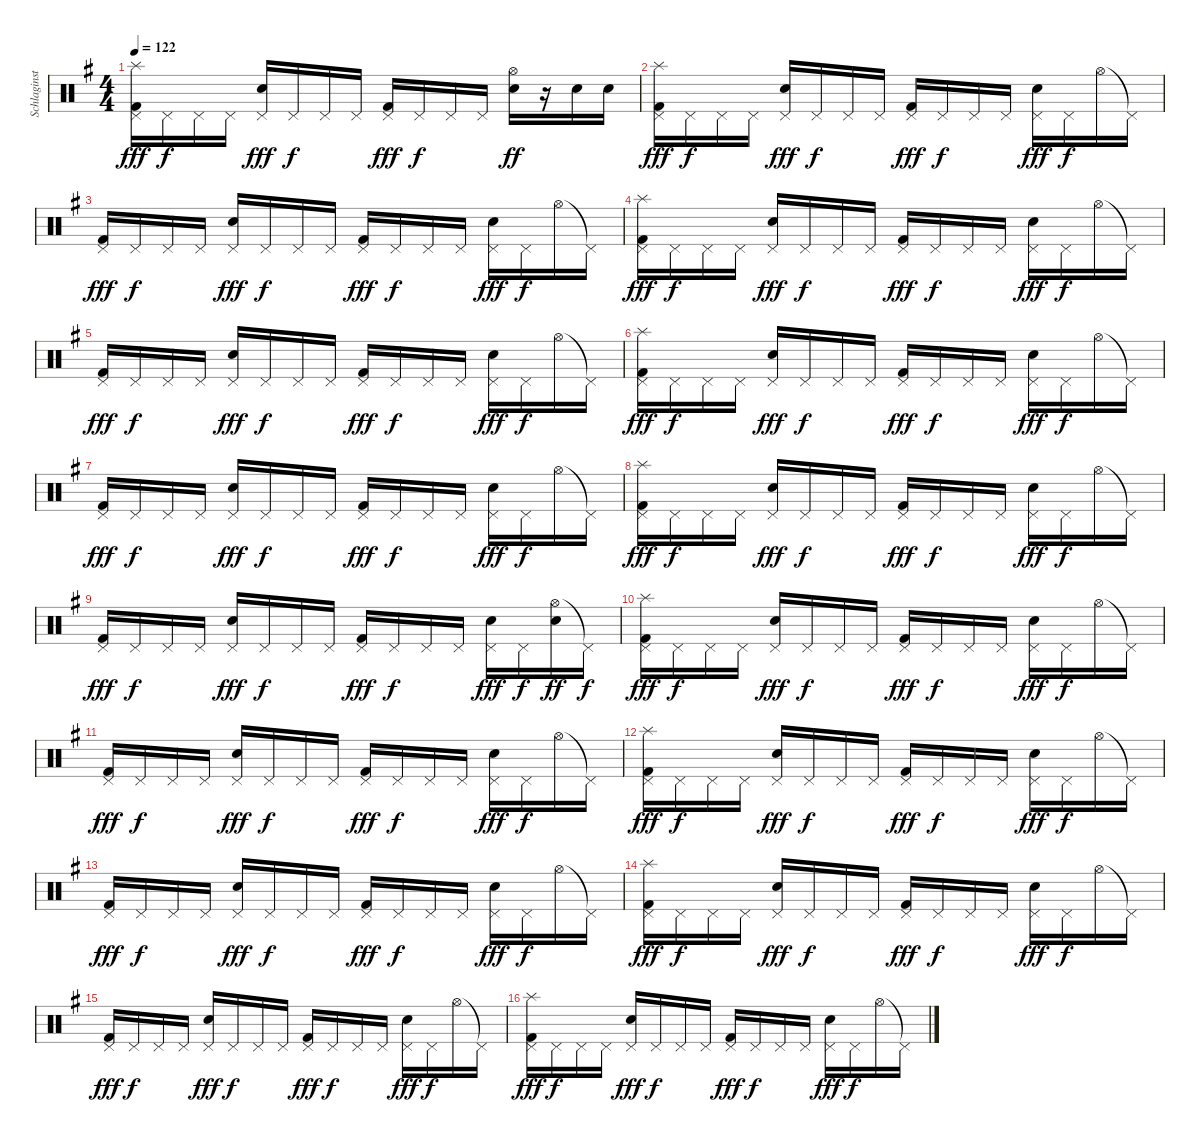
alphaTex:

\track ("Schlaginstrumente - Auswahl" "Schlaginst") {instrument percussion}
\staff {score}
\articulation defaults
\ts (4 4)
\tempo 122
\clef neutral
\ks g
("Splash (hit)" "Pedal Hi-Hat (hit)" "Kick (hit) 2").16{dy fff} "Pedal Hi-Hat (hit)".16{dy f} "Pedal Hi-Hat (hit)".16 "Pedal Hi-Hat (hit)".16 ("Pedal Hi-Hat (hit)" "Electric Snare (hit)").16{dy fff} "Pedal Hi-Hat (hit)".16{dy f} "Pedal Hi-Hat (hit)".16 "Pedal Hi-Hat (hit)".16 ("Pedal Hi-Hat (hit)" "Kick (hit) 2").16{dy fff} "Pedal Hi-Hat (hit)".16{dy f} "Pedal Hi-Hat (hit)".16 "Pedal Hi-Hat (hit)".16 ("Hi-Hat (open)" "Electric Snare (hit)").16{dy ff} r.16 "Electric Snare (hit)".16 "Electric Snare (hit)".16 |
("Splash (hit)" "Pedal Hi-Hat (hit)" "Kick (hit) 2").16{dy fff} "Pedal Hi-Hat (hit)".16{dy f} "Pedal Hi-Hat (hit)".16 "Pedal Hi-Hat (hit)".16 ("Pedal Hi-Hat (hit)" "Electric Snare (hit)").16{dy fff} "Pedal Hi-Hat (hit)".16{dy f} "Pedal Hi-Hat (hit)".16 "Pedal Hi-Hat (hit)".16 ("Pedal Hi-Hat (hit)" "Kick (hit) 2").16{dy fff} "Pedal Hi-Hat (hit)".16{dy f} "Pedal Hi-Hat (hit)".16 "Pedal Hi-Hat (hit)".16 ("Pedal Hi-Hat (hit)" "Electric Snare (hit)").16{dy fff} "Pedal Hi-Hat (hit)".16{dy f} "Hi-Hat (open)".16 "Pedal Hi-Hat (hit)"{t}.16 |
("Pedal Hi-Hat (hit)" "Kick (hit) 2").16{dy fff} "Pedal Hi-Hat (hit)".16{dy f} "Pedal Hi-Hat (hit)".16 "Pedal Hi-Hat (hit)".16 ("Pedal Hi-Hat (hit)" "Electric Snare (hit)").16{dy fff} "Pedal Hi-Hat (hit)".16{dy f} "Pedal Hi-Hat (hit)".16 "Pedal Hi-Hat (hit)".16 ("Pedal Hi-Hat (hit)" "Kick (hit) 2").16{dy fff} "Pedal Hi-Hat (hit)".16{dy f} "Pedal Hi-Hat (hit)".16 "Pedal Hi-Hat (hit)".16 ("Pedal Hi-Hat (hit)" "Electric Snare (hit)").16{dy fff} "Pedal Hi-Hat (hit)".16{dy f} "Hi-Hat (open)".16 "Pedal Hi-Hat (hit)"{t}.16 |
("Splash (hit)" "Pedal Hi-Hat (hit)" "Kick (hit) 2").16{dy fff} "Pedal Hi-Hat (hit)".16{dy f} "Pedal Hi-Hat (hit)".16 "Pedal Hi-Hat (hit)".16 ("Pedal Hi-Hat (hit)" "Electric Snare (hit)").16{dy fff} "Pedal Hi-Hat (hit)".16{dy f} "Pedal Hi-Hat (hit)".16 "Pedal Hi-Hat (hit)".16 ("Pedal Hi-Hat (hit)" "Kick (hit) 2").16{dy fff} "Pedal Hi-Hat (hit)".16{dy f} "Pedal Hi-Hat (hit)".16 "Pedal Hi-Hat (hit)".16 ("Pedal Hi-Hat (hit)" "Electric Snare (hit)").16{dy fff} "Pedal Hi-Hat (hit)".16{dy f} "Hi-Hat (open)".16 "Pedal Hi-Hat (hit)"{t}.16 |
("Pedal Hi-Hat (hit)" "Kick (hit) 2").16{dy fff} "Pedal Hi-Hat (hit)".16{dy f} "Pedal Hi-Hat (hit)".16 "Pedal Hi-Hat (hit)".16 ("Pedal Hi-Hat (hit)" "Electric Snare (hit)").16{dy fff} "Pedal Hi-Hat (hit)".16{dy f} "Pedal Hi-Hat (hit)".16 "Pedal Hi-Hat (hit)".16 ("Pedal Hi-Hat (hit)" "Kick (hit) 2").16{dy fff} "Pedal Hi-Hat (hit)".16{dy f} "Pedal Hi-Hat (hit)".16 "Pedal Hi-Hat (hit)".16 ("Pedal Hi-Hat (hit)" "Electric Snare (hit)").16{dy fff} "Pedal Hi-Hat (hit)".16{dy f} "Hi-Hat (open)".16 "Pedal Hi-Hat (hit)"{t}.16 |
("Splash (hit)" "Pedal Hi-Hat (hit)" "Kick (hit) 2").16{dy fff} "Pedal Hi-Hat (hit)".16{dy f} "Pedal Hi-Hat (hit)".16 "Pedal Hi-Hat (hit)".16 ("Pedal Hi-Hat (hit)" "Electric Snare (hit)").16{dy fff} "Pedal Hi-Hat (hit)".16{dy f} "Pedal Hi-Hat (hit)".16 "Pedal Hi-Hat (hit)".16 ("Pedal Hi-Hat (hit)" "Kick (hit) 2").16{dy fff} "Pedal Hi-Hat (hit)".16{dy f} "Pedal Hi-Hat (hit)".16 "Pedal Hi-Hat (hit)".16 ("Pedal Hi-Hat (hit)" "Electric Snare (hit)").16{dy fff} "Pedal Hi-Hat (hit)".16{dy f} "Hi-Hat (open)".16 "Pedal Hi-Hat (hit)"{t}.16 |
("Pedal Hi-Hat (hit)" "Kick (hit) 2").16{dy fff} "Pedal Hi-Hat (hit)".16{dy f} "Pedal Hi-Hat (hit)".16 "Pedal Hi-Hat (hit)".16 ("Pedal Hi-Hat (hit)" "Electric Snare (hit)").16{dy fff} "Pedal Hi-Hat (hit)".16{dy f} "Pedal Hi-Hat (hit)".16 "Pedal Hi-Hat (hit)".16 ("Pedal Hi-Hat (hit)" "Kick (hit) 2").16{dy fff} "Pedal Hi-Hat (hit)".16{dy f} "Pedal Hi-Hat (hit)".16 "Pedal Hi-Hat (hit)".16 ("Pedal Hi-Hat (hit)" "Electric Snare (hit)").16{dy fff} "Pedal Hi-Hat (hit)".16{dy f} "Hi-Hat (open)".16 "Pedal Hi-Hat (hit)"{t}.16 |
("Splash (hit)" "Pedal Hi-Hat (hit)" "Kick (hit) 2").16{dy fff} "Pedal Hi-Hat (hit)".16{dy f} "Pedal Hi-Hat (hit)".16 "Pedal Hi-Hat (hit)".16 ("Pedal Hi-Hat (hit)" "Electric Snare (hit)").16{dy fff} "Pedal Hi-Hat (hit)".16{dy f} "Pedal Hi-Hat (hit)".16 "Pedal Hi-Hat (hit)".16 ("Pedal Hi-Hat (hit)" "Kick (hit) 2").16{dy fff} "Pedal Hi-Hat (hit)".16{dy f} "Pedal Hi-Hat (hit)".16 "Pedal Hi-Hat (hit)".16 ("Pedal Hi-Hat (hit)" "Electric Snare (hit)").16{dy fff} "Pedal Hi-Hat (hit)".16{dy f} "Hi-Hat (open)".16 "Pedal Hi-Hat (hit)"{t}.16 |
("Pedal Hi-Hat (hit)" "Kick (hit) 2").16{dy fff} "Pedal Hi-Hat (hit)".16{dy f} "Pedal Hi-Hat (hit)".16 "Pedal Hi-Hat (hit)".16 ("Pedal Hi-Hat (hit)" "Electric Snare (hit)").16{dy fff} "Pedal Hi-Hat (hit)".16{dy f} "Pedal Hi-Hat (hit)".16 "Pedal Hi-Hat (hit)".16 ("Pedal Hi-Hat (hit)" "Kick (hit) 2").16{dy fff} "Pedal Hi-Hat (hit)".16{dy f} "Pedal Hi-Hat (hit)".16 "Pedal Hi-Hat (hit)".16 ("Pedal Hi-Hat (hit)" "Electric Snare (hit)").16{dy fff} "Pedal Hi-Hat (hit)".16{dy f} ("Hi-Hat (open)" "Electric Snare (hit)").16{dy ff} "Pedal Hi-Hat (hit)"{t}.16{dy f} |
("Splash (hit)" "Pedal Hi-Hat (hit)" "Kick (hit) 2").16{dy fff} "Pedal Hi-Hat (hit)".16{dy f} "Pedal Hi-Hat (hit)".16 "Pedal Hi-Hat (hit)".16 ("Pedal Hi-Hat (hit)" "Electric Snare (hit)").16{dy fff} "Pedal Hi-Hat (hit)".16{dy f} "Pedal Hi-Hat (hit)".16 "Pedal Hi-Hat (hit)".16 ("Pedal Hi-Hat (hit)" "Kick (hit) 2").16{dy fff} "Pedal Hi-Hat (hit)".16{dy f} "Pedal Hi-Hat (hit)".16 "Pedal Hi-Hat (hit)".16 ("Pedal Hi-Hat (hit)" "Electric Snare (hit)").16{dy fff} "Pedal Hi-Hat (hit)".16{dy f} "Hi-Hat (open)".16 "Pedal Hi-Hat (hit)"{t}.16 |
("Pedal Hi-Hat (hit)" "Kick (hit) 2").16{dy fff} "Pedal Hi-Hat (hit)".16{dy f} "Pedal Hi-Hat (hit)".16 "Pedal Hi-Hat (hit)".16 ("Pedal Hi-Hat (hit)" "Electric Snare (hit)").16{dy fff} "Pedal Hi-Hat (hit)".16{dy f} "Pedal Hi-Hat (hit)".16 "Pedal Hi-Hat (hit)".16 ("Pedal Hi-Hat (hit)" "Kick (hit) 2").16{dy fff} "Pedal Hi-Hat (hit)".16{dy f} "Pedal Hi-Hat (hit)".16 "Pedal Hi-Hat (hit)".16 ("Pedal Hi-Hat (hit)" "Electric Snare (hit)").16{dy fff} "Pedal Hi-Hat (hit)".16{dy f} "Hi-Hat (open)".16 "Pedal Hi-Hat (hit)"{t}.16 |
("Splash (hit)" "Pedal Hi-Hat (hit)" "Kick (hit) 2").16{dy fff} "Pedal Hi-Hat (hit)".16{dy f} "Pedal Hi-Hat (hit)".16 "Pedal Hi-Hat (hit)".16 ("Pedal Hi-Hat (hit)" "Electric Snare (hit)").16{dy fff} "Pedal Hi-Hat (hit)".16{dy f} "Pedal Hi-Hat (hit)".16 "Pedal Hi-Hat (hit)".16 ("Pedal Hi-Hat (hit)" "Kick (hit) 2").16{dy fff} "Pedal Hi-Hat (hit)".16{dy f} "Pedal Hi-Hat (hit)".16 "Pedal Hi-Hat (hit)".16 ("Pedal Hi-Hat (hit)" "Electric Snare (hit)").16{dy fff} "Pedal Hi-Hat (hit)".16{dy f} "Hi-Hat (open)".16 "Pedal Hi-Hat (hit)"{t}.16 |
("Pedal Hi-Hat (hit)" "Kick (hit) 2").16{dy fff} "Pedal Hi-Hat (hit)".16{dy f} "Pedal Hi-Hat (hit)".16 "Pedal Hi-Hat (hit)".16 ("Pedal Hi-Hat (hit)" "Electric Snare (hit)").16{dy fff} "Pedal Hi-Hat (hit)".16{dy f} "Pedal Hi-Hat (hit)".16 "Pedal Hi-Hat (hit)".16 ("Pedal Hi-Hat (hit)" "Kick (hit) 2").16{dy fff} "Pedal Hi-Hat (hit)".16{dy f} "Pedal Hi-Hat (hit)".16 "Pedal Hi-Hat (hit)".16 ("Pedal Hi-Hat (hit)" "Electric Snare (hit)").16{dy fff} "Pedal Hi-Hat (hit)".16{dy f} "Hi-Hat (open)".16 "Pedal Hi-Hat (hit)"{t}.16 |
("Splash (hit)" "Pedal Hi-Hat (hit)" "Kick (hit) 2").16{dy fff} "Pedal Hi-Hat (hit)".16{dy f} "Pedal Hi-Hat (hit)".16 "Pedal Hi-Hat (hit)".16 ("Pedal Hi-Hat (hit)" "Electric Snare (hit)").16{dy fff} "Pedal Hi-Hat (hit)".16{dy f} "Pedal Hi-Hat (hit)".16 "Pedal Hi-Hat (hit)".16 ("Pedal Hi-Hat (hit)" "Kick (hit) 2").16{dy fff} "Pedal Hi-Hat (hit)".16{dy f} "Pedal Hi-Hat (hit)".16 "Pedal Hi-Hat (hit)".16 ("Pedal Hi-Hat (hit)" "Electric Snare (hit)").16{dy fff} "Pedal Hi-Hat (hit)".16{dy f} "Hi-Hat (open)".16 "Pedal Hi-Hat (hit)"{t}.16 |
("Pedal Hi-Hat (hit)" "Kick (hit) 2").16{dy fff} "Pedal Hi-Hat (hit)".16{dy f} "Pedal Hi-Hat (hit)".16 "Pedal Hi-Hat (hit)".16 ("Pedal Hi-Hat (hit)" "Electric Snare (hit)").16{dy fff} "Pedal Hi-Hat (hit)".16{dy f} "Pedal Hi-Hat (hit)".16 "Pedal Hi-Hat (hit)".16 ("Pedal Hi-Hat (hit)" "Kick (hit) 2").16{dy fff} "Pedal Hi-Hat (hit)".16{dy f} "Pedal Hi-Hat (hit)".16 "Pedal Hi-Hat (hit)".16 ("Pedal Hi-Hat (hit)" "Electric Snare (hit)").16{dy fff} "Pedal Hi-Hat (hit)".16{dy f} "Hi-Hat (open)".16 "Pedal Hi-Hat (hit)"{t}.16 |
("Splash (hit)" "Pedal Hi-Hat (hit)" "Kick (hit) 2").16{dy fff} "Pedal Hi-Hat (hit)".16{dy f} "Pedal Hi-Hat (hit)".16 "Pedal Hi-Hat (hit)".16 ("Pedal Hi-Hat (hit)" "Electric Snare (hit)").16{dy fff} "Pedal Hi-Hat (hit)".16{dy f} "Pedal Hi-Hat (hit)".16 "Pedal Hi-Hat (hit)".16 ("Pedal Hi-Hat (hit)" "Kick (hit) 2").16{dy fff} "Pedal Hi-Hat (hit)".16{dy f} "Pedal Hi-Hat (hit)".16 "Pedal Hi-Hat (hit)".16 ("Pedal Hi-Hat (hit)" "Electric Snare (hit)").16{dy fff} "Pedal Hi-Hat (hit)".16{dy f} "Hi-Hat (open)".16 "Pedal Hi-Hat (hit)"{t}.16
